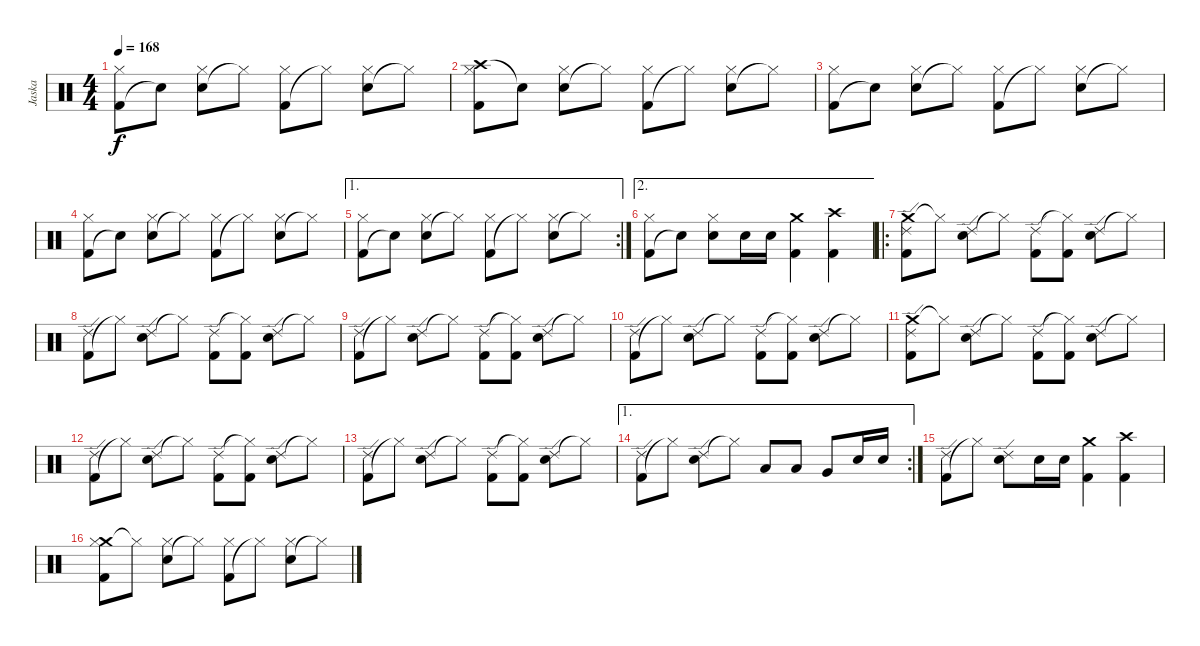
\track ("Jaska" "Jaska") {instrument percussion}
\staff {score}
\articulation defaults
\ts (4 4)
\tempo 168
\clef neutral
\ks c
("Kick (hit) 2" "Hi-Hat (closed)").8{dy f} "Snare (hit)"{t}.8 ("Electric Snare (hit)" "Hi-Hat (closed)").8 "Hi-Hat (closed)"{t}.8 ("Kick (hit) 2" "Hi-Hat (closed)").8 "Hi-Hat (closed)"{t}.8 ("Electric Snare (hit)" "Hi-Hat (closed)").8 "Hi-Hat (closed)"{t}.8 |
("Crash high (hit)" "Kick (hit) 2" "Hi-Hat (closed)").8 "Snare (hit)"{t}.8 ("Electric Snare (hit)" "Hi-Hat (closed)").8 "Hi-Hat (closed)"{t}.8 ("Kick (hit) 2" "Hi-Hat (closed)").8 "Hi-Hat (closed)"{t}.8 ("Electric Snare (hit)" "Hi-Hat (closed)").8 "Hi-Hat (closed)"{t}.8 |
("Kick (hit) 2" "Hi-Hat (closed)").8 "Snare (hit)"{t}.8 ("Electric Snare (hit)" "Hi-Hat (closed)").8 "Hi-Hat (closed)"{t}.8 ("Kick (hit) 2" "Hi-Hat (closed)").8 "Hi-Hat (closed)"{t}.8 ("Electric Snare (hit)" "Hi-Hat (closed)").8 "Hi-Hat (closed)"{t}.8 |
("Kick (hit) 2" "Hi-Hat (closed)").8 "Snare (hit)"{t}.8 ("Electric Snare (hit)" "Hi-Hat (closed)").8 "Hi-Hat (closed)"{t}.8 ("Kick (hit) 2" "Hi-Hat (closed)").8 "Hi-Hat (closed)"{t}.8 ("Electric Snare (hit)" "Hi-Hat (closed)").8 "Hi-Hat (closed)"{t}.8 |
\ae 1
\rc 2
("Kick (hit) 2" "Hi-Hat (closed)").8 "Snare (hit)"{t}.8 ("Electric Snare (hit)" "Hi-Hat (closed)").8 "Hi-Hat (closed)"{t}.8 ("Kick (hit) 2" "Hi-Hat (closed)").8 "Hi-Hat (closed)"{t}.8 ("Electric Snare (hit)" "Hi-Hat (closed)").8 "Hi-Hat (closed)"{t}.8 |
\ae 2
("Kick (hit) 2" "Hi-Hat (closed)").8 "Snare (hit)"{t}.8 ("Electric Snare (hit)" "Hi-Hat (closed)").8 "Electric Snare (hit)".16 "Electric Snare (hit)".16 ("Crash medium (hit)" "Kick (hit) 2").4 ("Crash high (hit)" "Kick (hit) 2").4 |
\ro
("Crash medium (hit)" "Kick (hit) 2" "Ride (edge) 2").8 "Hi-Hat (closed)"{t}.8 ("Electric Snare (hit)" "Ride (edge) 2").8 "Hi-Hat (closed)"{t}.8 ("Kick (hit) 2" "Ride (edge) 2").8 ("Kick (hit) 2" "Hi-Hat (closed)"{t}).8 ("Electric Snare (hit)" "Ride (edge) 2").8 "Hi-Hat (closed)"{t}.8 |
("Kick (hit) 2" "Ride (edge) 2").8 "Hi-Hat (closed)"{t}.8 ("Electric Snare (hit)" "Ride (edge) 2").8 "Hi-Hat (closed)"{t}.8 ("Kick (hit) 2" "Ride (edge) 2").8 ("Kick (hit) 2" "Hi-Hat (closed)"{t}).8 ("Electric Snare (hit)" "Ride (edge) 2").8 "Hi-Hat (closed)"{t}.8 |
("Kick (hit) 2" "Ride (edge) 2").8 "Hi-Hat (closed)"{t}.8 ("Electric Snare (hit)" "Ride (edge) 2").8 "Hi-Hat (closed)"{t}.8 ("Kick (hit) 2" "Ride (edge) 2").8 ("Kick (hit) 2" "Hi-Hat (closed)"{t}).8 ("Electric Snare (hit)" "Ride (edge) 2").8 "Hi-Hat (closed)"{t}.8 |
("Kick (hit) 2" "Ride (edge) 2").8 "Hi-Hat (closed)"{t}.8 ("Electric Snare (hit)" "Ride (edge) 2").8 "Hi-Hat (closed)"{t}.8 ("Kick (hit) 2" "Ride (edge) 2").8 ("Kick (hit) 2" "Hi-Hat (closed)"{t}).8 ("Electric Snare (hit)" "Ride (edge) 2").8 "Hi-Hat (closed)"{t}.8 |
("Crash medium (hit)" "Kick (hit) 2" "Ride (edge) 2").8 "Hi-Hat (closed)"{t}.8 ("Electric Snare (hit)" "Ride (edge) 2").8 "Hi-Hat (closed)"{t}.8 ("Kick (hit) 2" "Ride (edge) 2").8 ("Kick (hit) 2" "Hi-Hat (closed)"{t}).8 ("Electric Snare (hit)" "Ride (edge) 2").8 "Hi-Hat (closed)"{t}.8 |
("Kick (hit) 2" "Ride (edge) 2").8 "Hi-Hat (closed)"{t}.8 ("Electric Snare (hit)" "Ride (edge) 2").8 "Hi-Hat (closed)"{t}.8 ("Kick (hit) 2" "Ride (edge) 2").8 ("Kick (hit) 2" "Hi-Hat (closed)"{t}).8 ("Electric Snare (hit)" "Ride (edge) 2").8 "Hi-Hat (closed)"{t}.8 |
("Kick (hit) 2" "Ride (edge) 2").8 "Hi-Hat (closed)"{t}.8 ("Electric Snare (hit)" "Ride (edge) 2").8 "Hi-Hat (closed)"{t}.8 ("Kick (hit) 2" "Ride (edge) 2").8 ("Kick (hit) 2" "Hi-Hat (closed)"{t}).8 ("Electric Snare (hit)" "Ride (edge) 2").8 "Hi-Hat (closed)"{t}.8 |
\ae 1
\rc 2
("Kick (hit) 2" "Ride (edge) 2").8 "Hi-Hat (closed)"{t}.8 ("Electric Snare (hit)" "Ride (edge) 2").8 "Hi-Hat (closed)"{t}.8 "Low Tom (hit)".8 "Low Tom (hit)".8 "Very Low Tom (hit)".8 "Electric Snare (hit)".16 "Electric Snare (hit)".16 |
("Kick (hit) 2" "Ride (edge) 2").8 "Hi-Hat (closed)"{t}.8 ("Electric Snare (hit)" "Ride (edge) 2").8 "Electric Snare (hit)".16 "Electric Snare (hit)".16 ("Crash medium (hit)" "Kick (hit) 2").4 ("Crash high (hit)" "Kick (hit) 2").4 |
("Crash medium (hit)" "Kick (hit) 2" "Hi-Hat (closed)").8 "Hi-Hat (closed)"{t}.8 ("Electric Snare (hit)" "Hi-Hat (closed)").8 "Hi-Hat (closed)"{t}.8 ("Kick (hit) 2" "Hi-Hat (closed)").8 "Hi-Hat (closed)"{t}.8 ("Electric Snare (hit)" "Hi-Hat (closed)").8 "Hi-Hat (closed)"{t}.8
